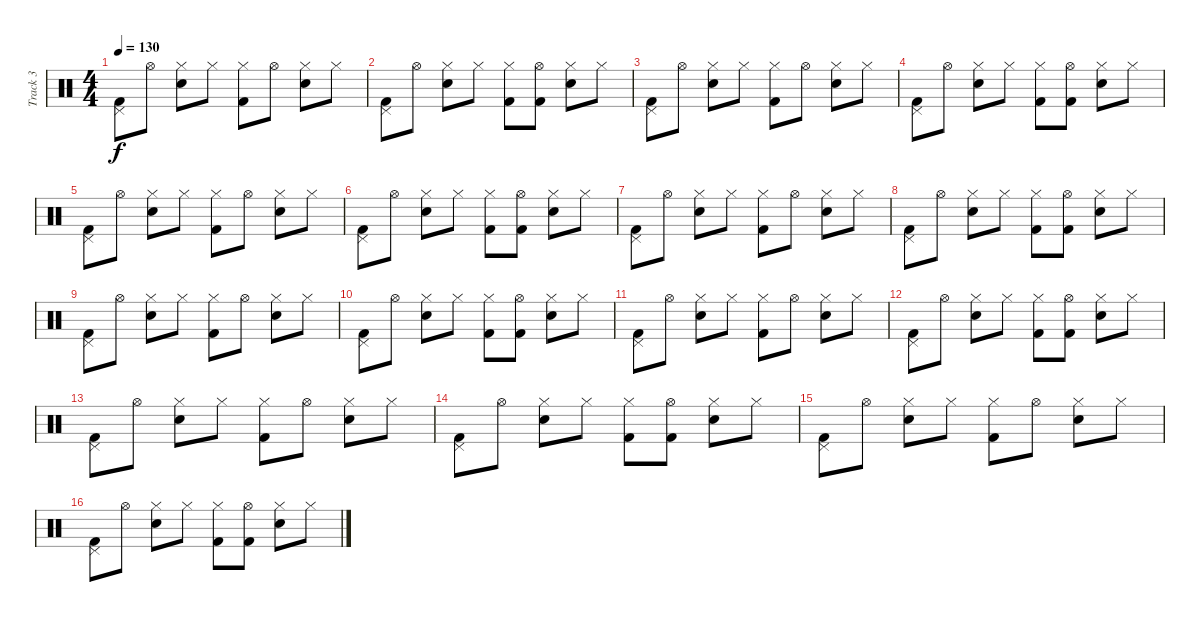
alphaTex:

\track ("Track 3" "Track 3") {instrument percussion}
\staff {score}
\articulation defaults
\ts (4 4)
\tempo 130
\clef neutral
\ks c
("Pedal Hi-Hat (hit)" "Kick (hit) 2").8{dy f} "Hi-Hat (open)".8 ("Hi-Hat (closed)" "Snare (hit) 2").8 "Hi-Hat (closed)".8 ("Hi-Hat (closed)" "Kick (hit) 2").8 "Hi-Hat (open)".8 ("Hi-Hat (closed)" "Snare (hit) 2").8 "Hi-Hat (closed)".8 |
("Pedal Hi-Hat (hit)" "Kick (hit) 2").8 "Hi-Hat (open)".8 ("Hi-Hat (closed)" "Snare (hit) 2").8 "Hi-Hat (closed)".8 ("Hi-Hat (closed)" "Kick (hit) 2").8 ("Hi-Hat (open)" "Kick (hit) 2").8 ("Hi-Hat (closed)" "Snare (hit) 2").8 "Hi-Hat (closed)".8 |
("Pedal Hi-Hat (hit)" "Kick (hit) 2").8 "Hi-Hat (open)".8 ("Hi-Hat (closed)" "Snare (hit) 2").8 "Hi-Hat (closed)".8 ("Hi-Hat (closed)" "Kick (hit) 2").8 "Hi-Hat (open)".8 ("Hi-Hat (closed)" "Snare (hit) 2").8 "Hi-Hat (closed)".8 |
("Pedal Hi-Hat (hit)" "Kick (hit) 2").8 "Hi-Hat (open)".8 ("Hi-Hat (closed)" "Snare (hit) 2").8 "Hi-Hat (closed)".8 ("Hi-Hat (closed)" "Kick (hit) 2").8 ("Hi-Hat (open)" "Kick (hit) 2").8 ("Hi-Hat (closed)" "Snare (hit) 2").8 "Hi-Hat (closed)".8 |
("Pedal Hi-Hat (hit)" "Kick (hit) 2").8 "Hi-Hat (open)".8 ("Hi-Hat (closed)" "Snare (hit) 2").8 "Hi-Hat (closed)".8 ("Hi-Hat (closed)" "Kick (hit) 2").8 "Hi-Hat (open)".8 ("Hi-Hat (closed)" "Snare (hit) 2").8 "Hi-Hat (closed)".8 |
("Pedal Hi-Hat (hit)" "Kick (hit) 2").8 "Hi-Hat (open)".8 ("Hi-Hat (closed)" "Snare (hit) 2").8 "Hi-Hat (closed)".8 ("Hi-Hat (closed)" "Kick (hit) 2").8 ("Hi-Hat (open)" "Kick (hit) 2").8 ("Hi-Hat (closed)" "Snare (hit) 2").8 "Hi-Hat (closed)".8 |
("Pedal Hi-Hat (hit)" "Kick (hit) 2").8 "Hi-Hat (open)".8 ("Hi-Hat (closed)" "Snare (hit) 2").8 "Hi-Hat (closed)".8 ("Hi-Hat (closed)" "Kick (hit) 2").8 "Hi-Hat (open)".8 ("Hi-Hat (closed)" "Snare (hit) 2").8 "Hi-Hat (closed)".8 |
("Pedal Hi-Hat (hit)" "Kick (hit) 2").8 "Hi-Hat (open)".8 ("Hi-Hat (closed)" "Snare (hit) 2").8 "Hi-Hat (closed)".8 ("Hi-Hat (closed)" "Kick (hit) 2").8 ("Hi-Hat (open)" "Kick (hit) 2").8 ("Hi-Hat (closed)" "Snare (hit) 2").8 "Hi-Hat (closed)".8 |
("Pedal Hi-Hat (hit)" "Kick (hit) 2").8 "Hi-Hat (open)".8 ("Hi-Hat (closed)" "Snare (hit) 2").8 "Hi-Hat (closed)".8 ("Hi-Hat (closed)" "Kick (hit) 2").8 "Hi-Hat (open)".8 ("Hi-Hat (closed)" "Snare (hit) 2").8 "Hi-Hat (closed)".8 |
("Pedal Hi-Hat (hit)" "Kick (hit) 2").8 "Hi-Hat (open)".8 ("Hi-Hat (closed)" "Snare (hit) 2").8 "Hi-Hat (closed)".8 ("Hi-Hat (closed)" "Kick (hit) 2").8 ("Hi-Hat (open)" "Kick (hit) 2").8 ("Hi-Hat (closed)" "Snare (hit) 2").8 "Hi-Hat (closed)".8 |
("Pedal Hi-Hat (hit)" "Kick (hit) 2").8 "Hi-Hat (open)".8 ("Hi-Hat (closed)" "Snare (hit) 2").8 "Hi-Hat (closed)".8 ("Hi-Hat (closed)" "Kick (hit) 2").8 "Hi-Hat (open)".8 ("Hi-Hat (closed)" "Snare (hit) 2").8 "Hi-Hat (closed)".8 |
("Pedal Hi-Hat (hit)" "Kick (hit) 2").8 "Hi-Hat (open)".8 ("Hi-Hat (closed)" "Snare (hit) 2").8 "Hi-Hat (closed)".8 ("Hi-Hat (closed)" "Kick (hit) 2").8 ("Hi-Hat (open)" "Kick (hit) 2").8 ("Hi-Hat (closed)" "Snare (hit) 2").8 "Hi-Hat (closed)".8 |
("Pedal Hi-Hat (hit)" "Kick (hit) 2").8 "Hi-Hat (open)".8 ("Hi-Hat (closed)" "Snare (hit) 2").8 "Hi-Hat (closed)".8 ("Hi-Hat (closed)" "Kick (hit) 2").8 "Hi-Hat (open)".8 ("Hi-Hat (closed)" "Snare (hit) 2").8 "Hi-Hat (closed)".8 |
("Pedal Hi-Hat (hit)" "Kick (hit) 2").8 "Hi-Hat (open)".8 ("Hi-Hat (closed)" "Snare (hit) 2").8 "Hi-Hat (closed)".8 ("Hi-Hat (closed)" "Kick (hit) 2").8 ("Hi-Hat (open)" "Kick (hit) 2").8 ("Hi-Hat (closed)" "Snare (hit) 2").8 "Hi-Hat (closed)".8 |
("Pedal Hi-Hat (hit)" "Kick (hit) 2").8 "Hi-Hat (open)".8 ("Hi-Hat (closed)" "Snare (hit) 2").8 "Hi-Hat (closed)".8 ("Hi-Hat (closed)" "Kick (hit) 2").8 "Hi-Hat (open)".8 ("Hi-Hat (closed)" "Snare (hit) 2").8 "Hi-Hat (closed)".8 |
("Pedal Hi-Hat (hit)" "Kick (hit) 2").8 "Hi-Hat (open)".8 ("Hi-Hat (closed)" "Snare (hit) 2").8 "Hi-Hat (closed)".8 ("Hi-Hat (closed)" "Kick (hit) 2").8 ("Hi-Hat (open)" "Kick (hit) 2").8 ("Hi-Hat (closed)" "Snare (hit) 2").8 "Hi-Hat (closed)".8
